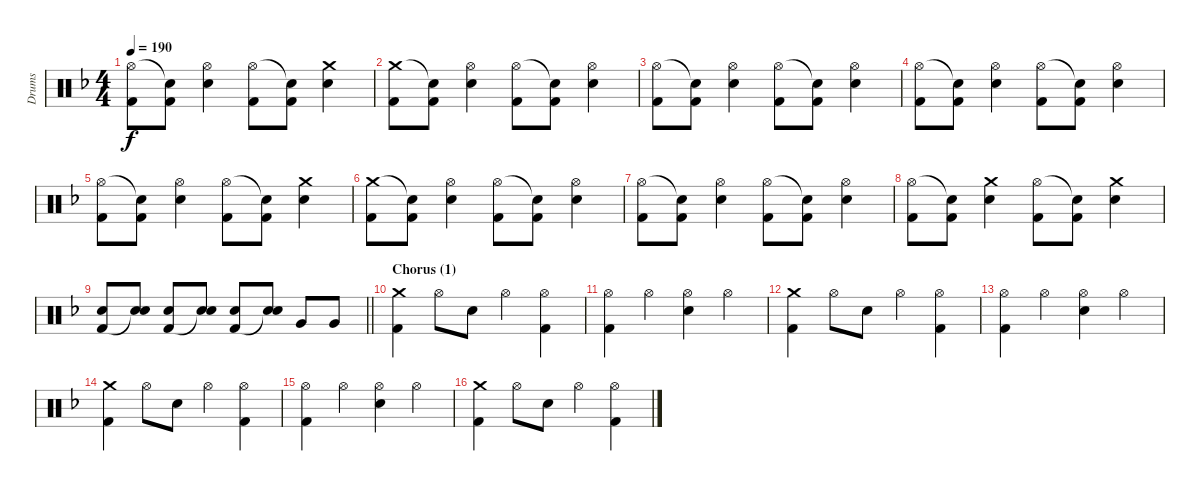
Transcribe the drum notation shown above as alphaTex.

\track ("Drums" "Drums") {instrument percussion}
\staff {score}
\articulation defaults
\ts (4 4)
\tempo 190
\clef neutral
\ks dminor
("Hi-Hat (open)" "Kick (hit) 2").8{dy f} ("Snare (hit)"{t} "Kick (hit) 2").8 ("Hi-Hat (open)" "Electric Snare (hit)").4 ("Hi-Hat (open)" "Kick (hit) 2").8 ("Snare (hit)"{t} "Kick (hit) 2").8 ("Crash medium (hit)" "Electric Snare (hit)").4 |
("Crash medium (hit)" "Kick (hit) 2").8 ("Snare (hit)"{t} "Kick (hit) 2").8 ("Hi-Hat (open)" "Electric Snare (hit)").4 ("Hi-Hat (open)" "Kick (hit) 2").8 ("Snare (hit)"{t} "Kick (hit) 2").8 ("Hi-Hat (open)" "Electric Snare (hit)").4 |
("Hi-Hat (open)" "Kick (hit) 2").8 ("Snare (hit)"{t} "Kick (hit) 2").8 ("Hi-Hat (open)" "Electric Snare (hit)").4 ("Hi-Hat (open)" "Kick (hit) 2").8 ("Snare (hit)"{t} "Kick (hit) 2").8 ("Hi-Hat (open)" "Electric Snare (hit)").4 |
("Hi-Hat (open)" "Kick (hit) 2").8 ("Snare (hit)"{t} "Kick (hit) 2").8 ("Hi-Hat (open)" "Electric Snare (hit)").4 ("Hi-Hat (open)" "Kick (hit) 2").8 ("Snare (hit)"{t} "Kick (hit) 2").8 ("Hi-Hat (open)" "Electric Snare (hit)").4 |
("Hi-Hat (open)" "Kick (hit) 2").8 ("Snare (hit)"{t} "Kick (hit) 2").8 ("Hi-Hat (open)" "Electric Snare (hit)").4 ("Hi-Hat (open)" "Kick (hit) 2").8 ("Snare (hit)"{t} "Kick (hit) 2").8 ("Crash medium (hit)" "Electric Snare (hit)").4 |
("Crash medium (hit)" "Kick (hit) 2").8 ("Snare (hit)"{t} "Kick (hit) 2").8 ("Hi-Hat (open)" "Electric Snare (hit)").4 ("Hi-Hat (open)" "Kick (hit) 2").8 ("Snare (hit)"{t} "Kick (hit) 2").8 ("Hi-Hat (open)" "Electric Snare (hit)").4 |
("Hi-Hat (open)" "Kick (hit) 2").8 ("Snare (hit)"{t} "Kick (hit) 2").8 ("Hi-Hat (open)" "Electric Snare (hit)").4 ("Hi-Hat (open)" "Kick (hit) 2").8 ("Snare (hit)"{t} "Kick (hit) 2").8 ("Hi-Hat (open)" "Electric Snare (hit)").4 |
("Hi-Hat (open)" "Kick (hit) 2").8 ("Snare (hit)"{t} "Kick (hit) 2").8 ("Crash medium (hit)" "Electric Snare (hit)").4 ("Hi-Hat (open)" "Kick (hit) 2").8 ("Snare (hit)"{t} "Kick (hit) 2").8 ("Crash medium (hit)" "Electric Snare (hit)").4 |
\barLineRight lightlight
("Electric Snare (hit)" "Kick (hit) 2").8 ("Electric Snare (hit)" "Snare (hit)"{t}).8 ("Electric Snare (hit)" "Kick (hit) 2").8 ("Electric Snare (hit)" "Snare (hit)"{t}).8 ("Electric Snare (hit)" "Kick (hit) 2").8 ("Electric Snare (hit)" "Snare (hit)"{t}).8 "Very Low Tom (hit)".8 "Very Low Tom (hit)".8 |
\section ("" "Chorus (1)")
("Crash medium (hit)" "Kick (hit) 2").4 "Hi-Hat (open)".8 "Electric Snare (hit)".8 "Hi-Hat (open)".4 ("Hi-Hat (open)" "Kick (hit) 2").4 |
("Hi-Hat (open)" "Kick (hit) 2").4 "Hi-Hat (open)".4 ("Hi-Hat (open)" "Electric Snare (hit)").4 "Hi-Hat (open)".4 |
("Crash medium (hit)" "Kick (hit) 2").4 "Hi-Hat (open)".8 "Electric Snare (hit)".8 "Hi-Hat (open)".4 ("Hi-Hat (open)" "Kick (hit) 2").4 |
("Hi-Hat (open)" "Kick (hit) 2").4 "Hi-Hat (open)".4 ("Hi-Hat (open)" "Electric Snare (hit)").4 "Hi-Hat (open)".4 |
("Crash medium (hit)" "Kick (hit) 2").4 "Hi-Hat (open)".8 "Electric Snare (hit)".8 "Hi-Hat (open)".4 ("Hi-Hat (open)" "Kick (hit) 2").4 |
("Hi-Hat (open)" "Kick (hit) 2").4 "Hi-Hat (open)".4 ("Hi-Hat (open)" "Electric Snare (hit)").4 "Hi-Hat (open)".4 |
("Crash medium (hit)" "Kick (hit) 2").4 "Hi-Hat (open)".8 "Electric Snare (hit)".8 "Hi-Hat (open)".4 ("Hi-Hat (open)" "Kick (hit) 2").4
